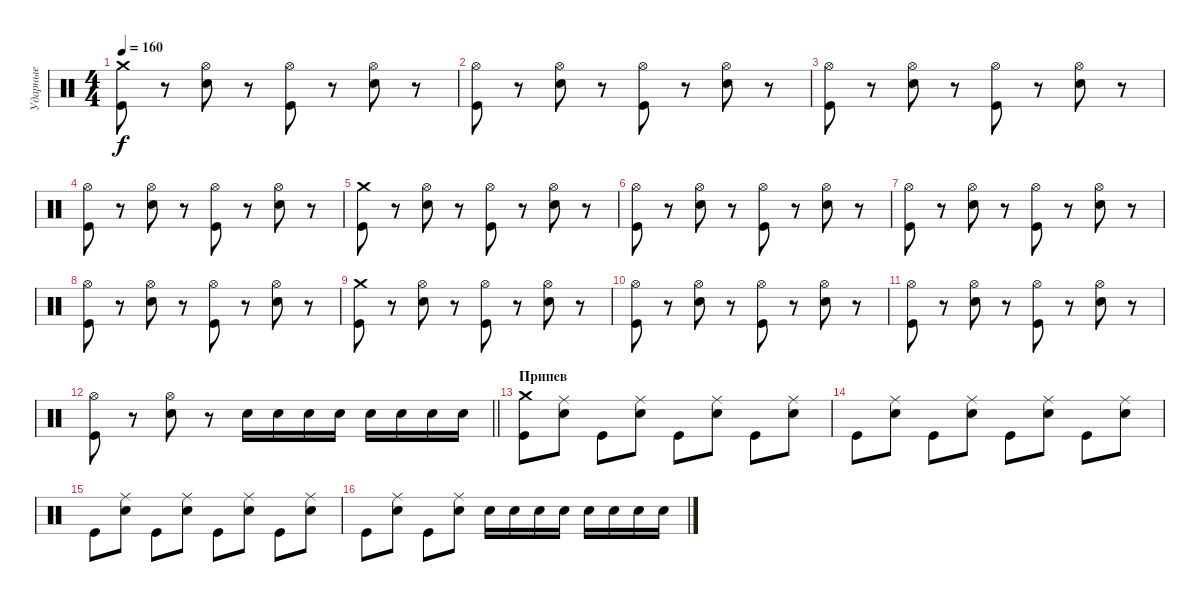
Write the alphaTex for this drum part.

\track ("Ударные" "Ударные") {instrument percussion}
\staff {score}
\articulation defaults
\ts (4 4)
\tempo 160
\clef neutral
\ks c
("Crash medium (hit)" "Kick (hit)").8{dy f} r.8 ("Hi-Hat (open)" "Electric Snare (hit)").8 r.8 ("Hi-Hat (open)" "Kick (hit)").8 r.8 ("Hi-Hat (open)" "Electric Snare (hit)").8 r.8 |
("Hi-Hat (open)" "Kick (hit)").8 r.8 ("Hi-Hat (open)" "Electric Snare (hit)").8 r.8 ("Hi-Hat (open)" "Kick (hit)").8 r.8 ("Hi-Hat (open)" "Electric Snare (hit)").8 r.8 |
("Hi-Hat (open)" "Kick (hit)").8 r.8 ("Hi-Hat (open)" "Electric Snare (hit)").8 r.8 ("Hi-Hat (open)" "Kick (hit)").8 r.8 ("Hi-Hat (open)" "Electric Snare (hit)").8 r.8 |
("Hi-Hat (open)" "Kick (hit)").8 r.8 ("Hi-Hat (open)" "Electric Snare (hit)").8 r.8 ("Hi-Hat (open)" "Kick (hit)").8 r.8 ("Hi-Hat (open)" "Electric Snare (hit)").8 r.8 |
("Crash medium (hit)" "Kick (hit)").8 r.8 ("Hi-Hat (open)" "Electric Snare (hit)").8 r.8 ("Hi-Hat (open)" "Kick (hit)").8 r.8 ("Hi-Hat (open)" "Electric Snare (hit)").8 r.8 |
("Hi-Hat (open)" "Kick (hit)").8 r.8 ("Hi-Hat (open)" "Electric Snare (hit)").8 r.8 ("Hi-Hat (open)" "Kick (hit)").8 r.8 ("Hi-Hat (open)" "Electric Snare (hit)").8 r.8 |
("Hi-Hat (open)" "Kick (hit)").8 r.8 ("Hi-Hat (open)" "Electric Snare (hit)").8 r.8 ("Hi-Hat (open)" "Kick (hit)").8 r.8 ("Hi-Hat (open)" "Electric Snare (hit)").8 r.8 |
("Hi-Hat (open)" "Kick (hit)").8 r.8 ("Hi-Hat (open)" "Electric Snare (hit)").8 r.8 ("Hi-Hat (open)" "Kick (hit)").8 r.8 ("Hi-Hat (open)" "Electric Snare (hit)").8 r.8 |
("Crash medium (hit)" "Kick (hit)").8 r.8 ("Hi-Hat (open)" "Electric Snare (hit)").8 r.8 ("Hi-Hat (open)" "Kick (hit)").8 r.8 ("Hi-Hat (open)" "Electric Snare (hit)").8 r.8 |
("Hi-Hat (open)" "Kick (hit)").8 r.8 ("Hi-Hat (open)" "Electric Snare (hit)").8 r.8 ("Hi-Hat (open)" "Kick (hit)").8 r.8 ("Hi-Hat (open)" "Electric Snare (hit)").8 r.8 |
("Hi-Hat (open)" "Kick (hit)").8 r.8 ("Hi-Hat (open)" "Electric Snare (hit)").8 r.8 ("Hi-Hat (open)" "Kick (hit)").8 r.8 ("Hi-Hat (open)" "Electric Snare (hit)").8 r.8 |
\barLineRight lightlight
("Hi-Hat (open)" "Kick (hit)").8 r.8 ("Hi-Hat (open)" "Electric Snare (hit)").8 r.8 "Electric Snare (hit)".16 "Electric Snare (hit)".16 "Electric Snare (hit)".16 "Electric Snare (hit)".16 "Electric Snare (hit)".16 "Electric Snare (hit)".16 "Electric Snare (hit)".16 "Electric Snare (hit)".16 |
\section ("" "Припев")
("Crash medium (hit)" "Kick (hit)").8 ("Ride (middle)" "Electric Snare (hit)").8 "Kick (hit)".8 ("Ride (middle)" "Electric Snare (hit)").8 "Kick (hit)".8 ("Ride (middle)" "Electric Snare (hit)").8 "Kick (hit)".8 ("Ride (middle)" "Electric Snare (hit)").8 |
"Kick (hit)".8 ("Ride (middle)" "Electric Snare (hit)").8 "Kick (hit)".8 ("Ride (middle)" "Electric Snare (hit)").8 "Kick (hit)".8 ("Ride (middle)" "Electric Snare (hit)").8 "Kick (hit)".8 ("Ride (middle)" "Electric Snare (hit)").8 |
"Kick (hit)".8 ("Ride (middle)" "Electric Snare (hit)").8 "Kick (hit)".8 ("Ride (middle)" "Electric Snare (hit)").8 "Kick (hit)".8 ("Ride (middle)" "Electric Snare (hit)").8 "Kick (hit)".8 ("Ride (middle)" "Electric Snare (hit)").8 |
"Kick (hit)".8 ("Ride (middle)" "Electric Snare (hit)").8 "Kick (hit)".8 ("Ride (middle)" "Electric Snare (hit)").8 "Electric Snare (hit)".16 "Electric Snare (hit)".16 "Electric Snare (hit)".16 "Electric Snare (hit)".16 "Electric Snare (hit)".16 "Electric Snare (hit)".16 "Electric Snare (hit)".16 "Electric Snare (hit)".16
